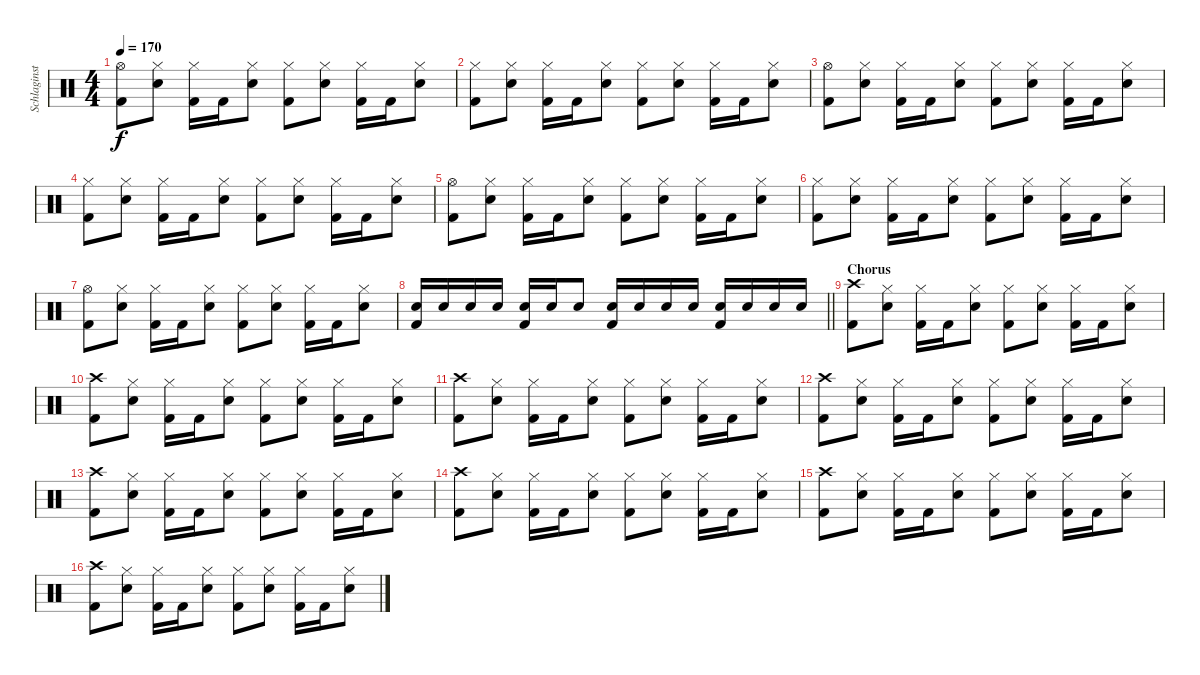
\track ("Schlaginstrumente - Auswahl" "Schlaginst") {instrument percussion}
\staff {score}
\articulation defaults
\ts (4 4)
\tempo 170
\clef neutral
\ks c
("Hi-Hat (open)" "Kick (hit) 2").8{dy f} ("Hi-Hat (closed)" "Snare (hit) 2").8 ("Hi-Hat (closed)" "Kick (hit) 2").16 "Kick (hit) 2".16 ("Hi-Hat (closed)" "Snare (hit) 2").8 ("Hi-Hat (closed)" "Kick (hit) 2").8 ("Hi-Hat (closed)" "Snare (hit) 2").8 ("Hi-Hat (closed)" "Kick (hit) 2").16 "Kick (hit) 2".16 ("Hi-Hat (closed)" "Snare (hit) 2").8 |
("Hi-Hat (closed)" "Kick (hit) 2").8 ("Hi-Hat (closed)" "Snare (hit) 2").8 ("Hi-Hat (closed)" "Kick (hit) 2").16 "Kick (hit) 2".16 ("Hi-Hat (closed)" "Snare (hit) 2").8 ("Hi-Hat (closed)" "Kick (hit) 2").8 ("Hi-Hat (closed)" "Snare (hit) 2").8 ("Hi-Hat (closed)" "Kick (hit) 2").16 "Kick (hit) 2".16 ("Hi-Hat (closed)" "Snare (hit) 2").8 |
("Hi-Hat (open)" "Kick (hit) 2").8 ("Hi-Hat (closed)" "Snare (hit) 2").8 ("Hi-Hat (closed)" "Kick (hit) 2").16 "Kick (hit) 2".16 ("Hi-Hat (closed)" "Snare (hit) 2").8 ("Hi-Hat (closed)" "Kick (hit) 2").8 ("Hi-Hat (closed)" "Snare (hit) 2").8 ("Hi-Hat (closed)" "Kick (hit) 2").16 "Kick (hit) 2".16 ("Hi-Hat (closed)" "Snare (hit) 2").8 |
("Hi-Hat (closed)" "Kick (hit) 2").8 ("Hi-Hat (closed)" "Snare (hit) 2").8 ("Hi-Hat (closed)" "Kick (hit) 2").16 "Kick (hit) 2".16 ("Hi-Hat (closed)" "Snare (hit) 2").8 ("Hi-Hat (closed)" "Kick (hit) 2").8 ("Hi-Hat (closed)" "Snare (hit) 2").8 ("Hi-Hat (closed)" "Kick (hit) 2").16 "Kick (hit) 2".16 ("Hi-Hat (closed)" "Snare (hit) 2").8 |
("Hi-Hat (open)" "Kick (hit) 2").8 ("Hi-Hat (closed)" "Snare (hit) 2").8 ("Hi-Hat (closed)" "Kick (hit) 2").16 "Kick (hit) 2".16 ("Hi-Hat (closed)" "Snare (hit) 2").8 ("Hi-Hat (closed)" "Kick (hit) 2").8 ("Hi-Hat (closed)" "Snare (hit) 2").8 ("Hi-Hat (closed)" "Kick (hit) 2").16 "Kick (hit) 2".16 ("Hi-Hat (closed)" "Snare (hit) 2").8 |
("Hi-Hat (closed)" "Kick (hit) 2").8 ("Hi-Hat (closed)" "Snare (hit) 2").8 ("Hi-Hat (closed)" "Kick (hit) 2").16 "Kick (hit) 2".16 ("Hi-Hat (closed)" "Snare (hit) 2").8 ("Hi-Hat (closed)" "Kick (hit) 2").8 ("Hi-Hat (closed)" "Snare (hit) 2").8 ("Hi-Hat (closed)" "Kick (hit) 2").16 "Kick (hit) 2".16 ("Hi-Hat (closed)" "Snare (hit) 2").8 |
("Hi-Hat (open)" "Kick (hit) 2").8 ("Hi-Hat (closed)" "Snare (hit) 2").8 ("Hi-Hat (closed)" "Kick (hit) 2").16 "Kick (hit) 2".16 ("Hi-Hat (closed)" "Snare (hit) 2").8 ("Hi-Hat (closed)" "Kick (hit) 2").8 ("Hi-Hat (closed)" "Snare (hit) 2").8 ("Hi-Hat (closed)" "Kick (hit) 2").16 "Kick (hit) 2".16 ("Hi-Hat (closed)" "Snare (hit) 2").8 |
\barLineRight lightlight
("Snare (hit) 2" "Kick (hit) 2").16 "Snare (hit) 2".16 "Snare (hit) 2".16 "Snare (hit) 2".16 ("Snare (hit) 2" "Kick (hit) 2").16 "Snare (hit) 2".16 "Snare (hit) 2".8 ("Snare (hit) 2" "Kick (hit) 2").16 "Snare (hit) 2".16 "Snare (hit) 2".16 "Snare (hit) 2".16 ("Snare (hit) 2" "Kick (hit) 2").16 "Snare (hit) 2".16 "Snare (hit) 2".16 "Snare (hit) 2".16 |
\section ("" "Chorus")
("Crash high (hit)" "Kick (hit) 2").8 ("Hi-Hat (closed)" "Snare (hit) 2").8 ("Hi-Hat (closed)" "Kick (hit) 2").16 "Kick (hit) 2".16 ("Hi-Hat (closed)" "Snare (hit) 2").8 ("Hi-Hat (closed)" "Kick (hit) 2").8 ("Hi-Hat (closed)" "Snare (hit) 2").8 ("Hi-Hat (closed)" "Kick (hit) 2").16 "Kick (hit) 2".16 ("Hi-Hat (closed)" "Snare (hit) 2").8 |
("Crash high (hit)" "Kick (hit) 2").8 ("Hi-Hat (closed)" "Snare (hit) 2").8 ("Hi-Hat (closed)" "Kick (hit) 2").16 "Kick (hit) 2".16 ("Hi-Hat (closed)" "Snare (hit) 2").8 ("Hi-Hat (closed)" "Kick (hit) 2").8 ("Hi-Hat (closed)" "Snare (hit) 2").8 ("Hi-Hat (closed)" "Kick (hit) 2").16 "Kick (hit) 2".16 ("Hi-Hat (closed)" "Snare (hit) 2").8 |
("Crash high (hit)" "Kick (hit) 2").8 ("Hi-Hat (closed)" "Snare (hit) 2").8 ("Hi-Hat (closed)" "Kick (hit) 2").16 "Kick (hit) 2".16 ("Hi-Hat (closed)" "Snare (hit) 2").8 ("Hi-Hat (closed)" "Kick (hit) 2").8 ("Hi-Hat (closed)" "Snare (hit) 2").8 ("Hi-Hat (closed)" "Kick (hit) 2").16 "Kick (hit) 2".16 ("Hi-Hat (closed)" "Snare (hit) 2").8 |
("Crash high (hit)" "Kick (hit) 2").8 ("Hi-Hat (closed)" "Snare (hit) 2").8 ("Hi-Hat (closed)" "Kick (hit) 2").16 "Kick (hit) 2".16 ("Hi-Hat (closed)" "Snare (hit) 2").8 ("Hi-Hat (closed)" "Kick (hit) 2").8 ("Hi-Hat (closed)" "Snare (hit) 2").8 ("Hi-Hat (closed)" "Kick (hit) 2").16 "Kick (hit) 2".16 ("Hi-Hat (closed)" "Snare (hit) 2").8 |
("Crash high (hit)" "Kick (hit) 2").8 ("Hi-Hat (closed)" "Snare (hit) 2").8 ("Hi-Hat (closed)" "Kick (hit) 2").16 "Kick (hit) 2".16 ("Hi-Hat (closed)" "Snare (hit) 2").8 ("Hi-Hat (closed)" "Kick (hit) 2").8 ("Hi-Hat (closed)" "Snare (hit) 2").8 ("Hi-Hat (closed)" "Kick (hit) 2").16 "Kick (hit) 2".16 ("Hi-Hat (closed)" "Snare (hit) 2").8 |
("Crash high (hit)" "Kick (hit) 2").8 ("Hi-Hat (closed)" "Snare (hit) 2").8 ("Hi-Hat (closed)" "Kick (hit) 2").16 "Kick (hit) 2".16 ("Hi-Hat (closed)" "Snare (hit) 2").8 ("Hi-Hat (closed)" "Kick (hit) 2").8 ("Hi-Hat (closed)" "Snare (hit) 2").8 ("Hi-Hat (closed)" "Kick (hit) 2").16 "Kick (hit) 2".16 ("Hi-Hat (closed)" "Snare (hit) 2").8 |
("Crash high (hit)" "Kick (hit) 2").8 ("Hi-Hat (closed)" "Snare (hit) 2").8 ("Hi-Hat (closed)" "Kick (hit) 2").16 "Kick (hit) 2".16 ("Hi-Hat (closed)" "Snare (hit) 2").8 ("Hi-Hat (closed)" "Kick (hit) 2").8 ("Hi-Hat (closed)" "Snare (hit) 2").8 ("Hi-Hat (closed)" "Kick (hit) 2").16 "Kick (hit) 2".16 ("Hi-Hat (closed)" "Snare (hit) 2").8 |
("Crash high (hit)" "Kick (hit) 2").8 ("Hi-Hat (closed)" "Snare (hit) 2").8 ("Hi-Hat (closed)" "Kick (hit) 2").16 "Kick (hit) 2".16 ("Hi-Hat (closed)" "Snare (hit) 2").8 ("Hi-Hat (closed)" "Kick (hit) 2").8 ("Hi-Hat (closed)" "Snare (hit) 2").8 ("Hi-Hat (closed)" "Kick (hit) 2").16 "Kick (hit) 2".16 ("Hi-Hat (closed)" "Snare (hit) 2").8
